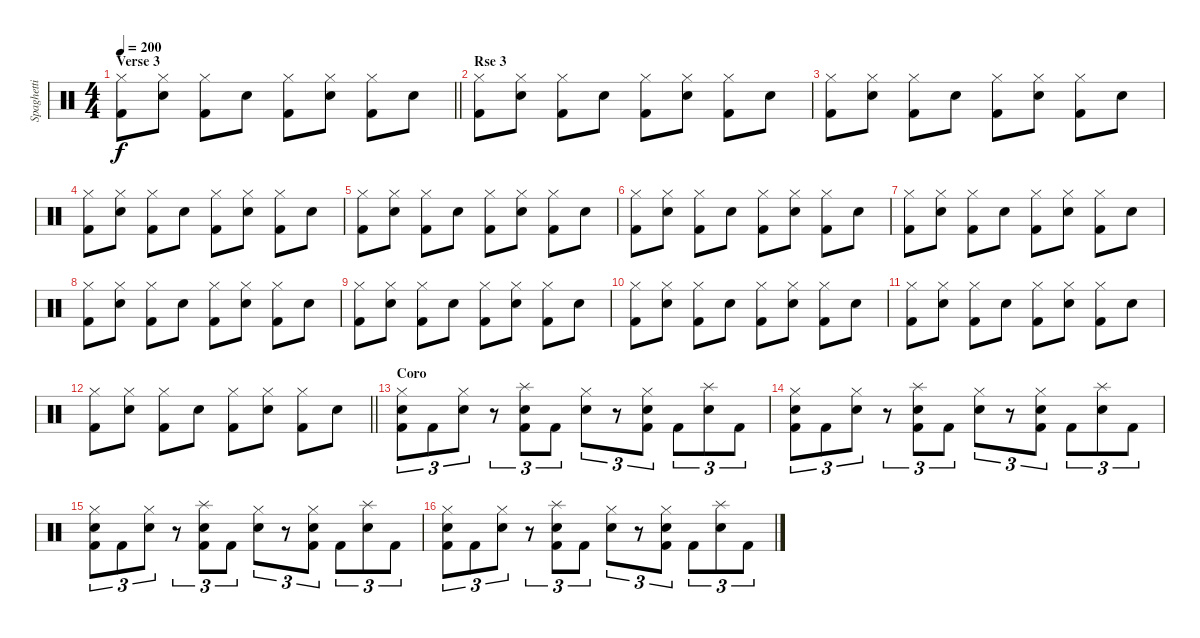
\track ("Spaghetti" "Spaghetti") {instrument percussion}
\staff {score}
\articulation defaults
\ts (4 4)
\section ("" "Verse 3")
\tempo 200
\clef neutral
\barLineRight lightlight
\ks c
("Hi-Hat (closed)" "Kick (hit) 2").8{dy f} ("Hi-Hat (closed)" "Snare (hit) 2").8 ("Hi-Hat (closed)" "Kick (hit) 2").8 "Snare (hit) 2".8 ("Hi-Hat (closed)" "Kick (hit) 2").8 ("Hi-Hat (closed)" "Snare (hit) 2").8 ("Hi-Hat (closed)" "Kick (hit) 2").8 "Snare (hit) 2".8 |
\section ("" "Rse 3")
("Hi-Hat (closed)" "Kick (hit) 2").8 ("Hi-Hat (closed)" "Snare (hit) 2").8 ("Hi-Hat (closed)" "Kick (hit) 2").8 "Snare (hit) 2".8 ("Hi-Hat (closed)" "Kick (hit) 2").8 ("Hi-Hat (closed)" "Snare (hit) 2").8 ("Hi-Hat (closed)" "Kick (hit) 2").8 "Snare (hit) 2".8 |
("Hi-Hat (closed)" "Kick (hit) 2").8 ("Hi-Hat (closed)" "Snare (hit) 2").8 ("Hi-Hat (closed)" "Kick (hit) 2").8 "Snare (hit) 2".8 ("Hi-Hat (closed)" "Kick (hit) 2").8 ("Hi-Hat (closed)" "Snare (hit) 2").8 ("Hi-Hat (closed)" "Kick (hit) 2").8 "Snare (hit) 2".8 |
("Hi-Hat (closed)" "Kick (hit) 2").8 ("Hi-Hat (closed)" "Snare (hit) 2").8 ("Hi-Hat (closed)" "Kick (hit) 2").8 "Snare (hit) 2".8 ("Hi-Hat (closed)" "Kick (hit) 2").8 ("Hi-Hat (closed)" "Snare (hit) 2").8 ("Hi-Hat (closed)" "Kick (hit) 2").8 "Snare (hit) 2".8 |
("Hi-Hat (closed)" "Kick (hit) 2").8 ("Hi-Hat (closed)" "Snare (hit) 2").8 ("Hi-Hat (closed)" "Kick (hit) 2").8 "Snare (hit) 2".8 ("Hi-Hat (closed)" "Kick (hit) 2").8 ("Hi-Hat (closed)" "Snare (hit) 2").8 ("Hi-Hat (closed)" "Kick (hit) 2").8 "Snare (hit) 2".8 |
("Hi-Hat (closed)" "Kick (hit) 2").8 ("Hi-Hat (closed)" "Snare (hit) 2").8 ("Hi-Hat (closed)" "Kick (hit) 2").8 "Snare (hit) 2".8 ("Hi-Hat (closed)" "Kick (hit) 2").8 ("Hi-Hat (closed)" "Snare (hit) 2").8 ("Hi-Hat (closed)" "Kick (hit) 2").8 "Snare (hit) 2".8 |
("Hi-Hat (closed)" "Kick (hit) 2").8 ("Hi-Hat (closed)" "Snare (hit) 2").8 ("Hi-Hat (closed)" "Kick (hit) 2").8 "Snare (hit) 2".8 ("Hi-Hat (closed)" "Kick (hit) 2").8 ("Hi-Hat (closed)" "Snare (hit) 2").8 ("Hi-Hat (closed)" "Kick (hit) 2").8 "Snare (hit) 2".8 |
("Hi-Hat (closed)" "Kick (hit) 2").8 ("Hi-Hat (closed)" "Snare (hit) 2").8 ("Hi-Hat (closed)" "Kick (hit) 2").8 "Snare (hit) 2".8 ("Hi-Hat (closed)" "Kick (hit) 2").8 ("Hi-Hat (closed)" "Snare (hit) 2").8 ("Hi-Hat (closed)" "Kick (hit) 2").8 "Snare (hit) 2".8 |
("Hi-Hat (closed)" "Kick (hit) 2").8 ("Hi-Hat (closed)" "Snare (hit) 2").8 ("Hi-Hat (closed)" "Kick (hit) 2").8 "Snare (hit) 2".8 ("Hi-Hat (closed)" "Kick (hit) 2").8 ("Hi-Hat (closed)" "Snare (hit) 2").8 ("Hi-Hat (closed)" "Kick (hit) 2").8 "Snare (hit) 2".8 |
("Hi-Hat (closed)" "Kick (hit) 2").8 ("Hi-Hat (closed)" "Snare (hit) 2").8 ("Hi-Hat (closed)" "Kick (hit) 2").8 "Snare (hit) 2".8 ("Hi-Hat (closed)" "Kick (hit) 2").8 ("Hi-Hat (closed)" "Snare (hit) 2").8 ("Hi-Hat (closed)" "Kick (hit) 2").8 "Snare (hit) 2".8 |
("Hi-Hat (closed)" "Kick (hit) 2").8 ("Hi-Hat (closed)" "Snare (hit) 2").8 ("Hi-Hat (closed)" "Kick (hit) 2").8 "Snare (hit) 2".8 ("Hi-Hat (closed)" "Kick (hit) 2").8 ("Hi-Hat (closed)" "Snare (hit) 2").8 ("Hi-Hat (closed)" "Kick (hit) 2").8 "Snare (hit) 2".8 |
\barLineRight lightlight
("Hi-Hat (closed)" "Kick (hit) 2").8 ("Hi-Hat (closed)" "Snare (hit) 2").8 ("Hi-Hat (closed)" "Kick (hit) 2").8 "Snare (hit) 2".8 ("Hi-Hat (closed)" "Kick (hit) 2").8 ("Hi-Hat (closed)" "Snare (hit) 2").8 ("Hi-Hat (closed)" "Kick (hit) 2").8 "Snare (hit) 2".8 |
\section ("" "Coro")
("Hi-Hat (closed)" "Snare (hit) 2" "Kick (hit) 2").8{tu (3 2)} "Kick (hit) 2".8{tu (3 2)} ("Hi-Hat (closed)" "Snare (hit) 2").8{tu (3 2)} r.8{tu (3 2)} ("Splash (hit)" "Snare (hit) 2" "Kick (hit) 2").8{tu (3 2)} "Kick (hit) 2".8{tu (3 2)} ("Hi-Hat (closed)" "Snare (hit) 2").8{tu (3 2)} r.8{tu (3 2)} ("Hi-Hat (closed)" "Snare (hit) 2" "Kick (hit) 2").8{tu (3 2)} "Kick (hit) 2".8{tu (3 2)} ("Splash (hit)" "Snare (hit) 2").8{tu (3 2)} "Kick (hit) 2".8{tu (3 2)} |
("Hi-Hat (closed)" "Snare (hit) 2" "Kick (hit) 2").8{tu (3 2)} "Kick (hit) 2".8{tu (3 2)} ("Hi-Hat (closed)" "Snare (hit) 2").8{tu (3 2)} r.8{tu (3 2)} ("Splash (hit)" "Snare (hit) 2" "Kick (hit) 2").8{tu (3 2)} "Kick (hit) 2".8{tu (3 2)} ("Hi-Hat (closed)" "Snare (hit) 2").8{tu (3 2)} r.8{tu (3 2)} ("Hi-Hat (closed)" "Snare (hit) 2" "Kick (hit) 2").8{tu (3 2)} "Kick (hit) 2".8{tu (3 2)} ("Splash (hit)" "Snare (hit) 2").8{tu (3 2)} "Kick (hit) 2".8{tu (3 2)} |
("Hi-Hat (closed)" "Snare (hit) 2" "Kick (hit) 2").8{tu (3 2)} "Kick (hit) 2".8{tu (3 2)} ("Hi-Hat (closed)" "Snare (hit) 2").8{tu (3 2)} r.8{tu (3 2)} ("Splash (hit)" "Snare (hit) 2" "Kick (hit) 2").8{tu (3 2)} "Kick (hit) 2".8{tu (3 2)} ("Hi-Hat (closed)" "Snare (hit) 2").8{tu (3 2)} r.8{tu (3 2)} ("Hi-Hat (closed)" "Snare (hit) 2" "Kick (hit) 2").8{tu (3 2)} "Kick (hit) 2".8{tu (3 2)} ("Splash (hit)" "Snare (hit) 2").8{tu (3 2)} "Kick (hit) 2".8{tu (3 2)} |
("Hi-Hat (closed)" "Snare (hit) 2" "Kick (hit) 2").8{tu (3 2)} "Kick (hit) 2".8{tu (3 2)} ("Hi-Hat (closed)" "Snare (hit) 2").8{tu (3 2)} r.8{tu (3 2)} ("Splash (hit)" "Snare (hit) 2" "Kick (hit) 2").8{tu (3 2)} "Kick (hit) 2".8{tu (3 2)} ("Hi-Hat (closed)" "Snare (hit) 2").8{tu (3 2)} r.8{tu (3 2)} ("Hi-Hat (closed)" "Snare (hit) 2" "Kick (hit) 2").8{tu (3 2)} "Kick (hit) 2".8{tu (3 2)} ("Splash (hit)" "Snare (hit) 2").8{tu (3 2)} "Kick (hit) 2".8{tu (3 2)}
